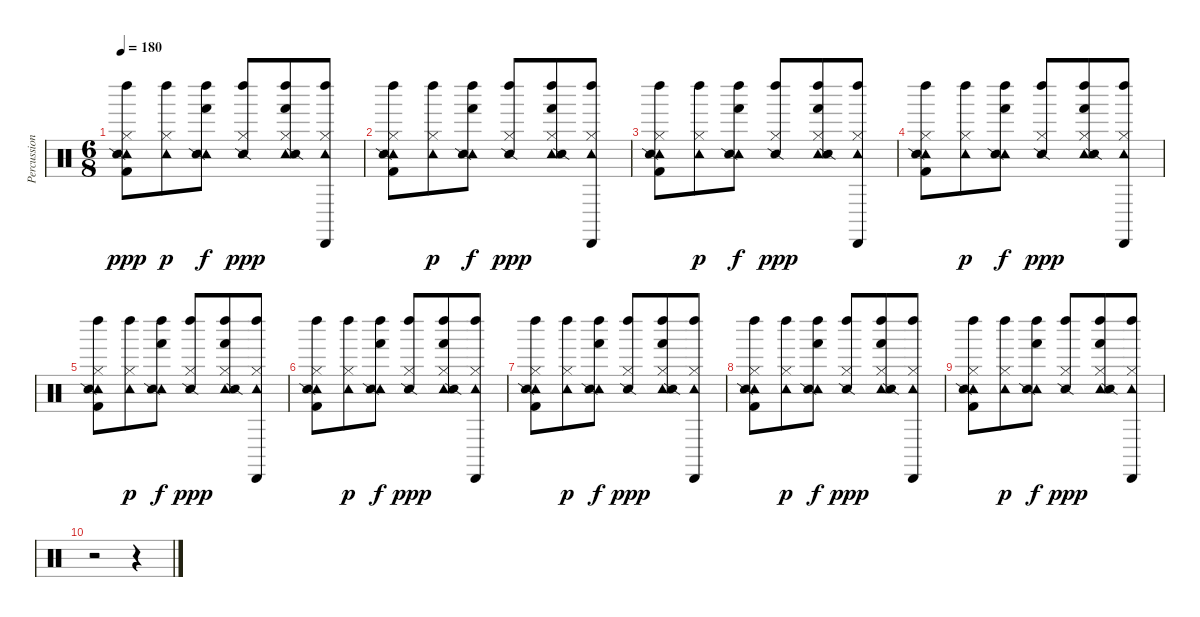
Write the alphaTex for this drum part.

\track ("Percussion" "Percussion") {instrument percussion}
\staff {score}
\articulation defaults
\ts (6 8)
\tempo 180
\clef neutral
\ks c
("Kick (hit) 2" "Hi-Hat (closed)" "Tambourine (hit)" "Snare (side stick) 2" "Left Maraca (hit)").8{dy ppp} ("Hi-Hat (closed)" "Tambourine (hit)" "Left Maraca (hit)").8{dy p} ("Hand (hit)" "Tambourine (hit)" "Snare (side stick) 2" "Left Maraca (hit)").8{dy f} ("Hi-Hat (closed)" "Snare (side stick) 2" "Left Maraca (hit)").8{dy ppp} ("Hand (hit)" "Hi-Hat (closed)" "Tambourine (hit)" "Snare (side stick) 2" "Left Maraca (hit)").8 ("Hi-Hat (closed)" "Tambourine (hit)" "Cabasa (hit)" "Left Maraca (hit)").8 |
("Kick (hit) 2" "Hi-Hat (closed)" "Tambourine (hit)" "Snare (side stick) 2" "Left Maraca (hit)").8 ("Hi-Hat (closed)" "Tambourine (hit)" "Left Maraca (hit)").8{dy p} ("Hand (hit)" "Tambourine (hit)" "Snare (side stick) 2" "Left Maraca (hit)").8{dy f} ("Hi-Hat (closed)" "Snare (side stick) 2" "Left Maraca (hit)").8{dy ppp} ("Hand (hit)" "Hi-Hat (closed)" "Tambourine (hit)" "Snare (side stick) 2" "Left Maraca (hit)").8 ("Hi-Hat (closed)" "Tambourine (hit)" "Cabasa (hit)" "Left Maraca (hit)").8 |
("Kick (hit) 2" "Hi-Hat (closed)" "Tambourine (hit)" "Snare (side stick) 2" "Left Maraca (hit)").8 ("Hi-Hat (closed)" "Tambourine (hit)" "Left Maraca (hit)").8{dy p} ("Hand (hit)" "Tambourine (hit)" "Snare (side stick) 2" "Left Maraca (hit)").8{dy f} ("Hi-Hat (closed)" "Snare (side stick) 2" "Left Maraca (hit)").8{dy ppp} ("Hand (hit)" "Hi-Hat (closed)" "Tambourine (hit)" "Snare (side stick) 2" "Left Maraca (hit)").8 ("Hi-Hat (closed)" "Tambourine (hit)" "Cabasa (hit)" "Left Maraca (hit)").8 |
("Kick (hit) 2" "Hi-Hat (closed)" "Tambourine (hit)" "Snare (side stick) 2" "Left Maraca (hit)").8 ("Hi-Hat (closed)" "Tambourine (hit)" "Left Maraca (hit)").8{dy p} ("Hand (hit)" "Tambourine (hit)" "Snare (side stick) 2" "Left Maraca (hit)").8{dy f} ("Hi-Hat (closed)" "Snare (side stick) 2" "Left Maraca (hit)").8{dy ppp} ("Hand (hit)" "Hi-Hat (closed)" "Tambourine (hit)" "Snare (side stick) 2" "Left Maraca (hit)").8 ("Hi-Hat (closed)" "Tambourine (hit)" "Cabasa (hit)" "Left Maraca (hit)").8 |
("Kick (hit) 2" "Hi-Hat (closed)" "Tambourine (hit)" "Snare (side stick) 2" "Left Maraca (hit)").8 ("Hi-Hat (closed)" "Tambourine (hit)" "Left Maraca (hit)").8{dy p} ("Hand (hit)" "Tambourine (hit)" "Snare (side stick) 2" "Left Maraca (hit)").8{dy f} ("Hi-Hat (closed)" "Snare (side stick) 2" "Left Maraca (hit)").8{dy ppp} ("Hand (hit)" "Hi-Hat (closed)" "Tambourine (hit)" "Snare (side stick) 2" "Left Maraca (hit)").8 ("Hi-Hat (closed)" "Tambourine (hit)" "Cabasa (hit)" "Left Maraca (hit)").8 |
("Kick (hit) 2" "Hi-Hat (closed)" "Tambourine (hit)" "Snare (side stick) 2" "Left Maraca (hit)").8 ("Hi-Hat (closed)" "Tambourine (hit)" "Left Maraca (hit)").8{dy p} ("Hand (hit)" "Tambourine (hit)" "Snare (side stick) 2" "Left Maraca (hit)").8{dy f} ("Hi-Hat (closed)" "Snare (side stick) 2" "Left Maraca (hit)").8{dy ppp} ("Hand (hit)" "Hi-Hat (closed)" "Tambourine (hit)" "Snare (side stick) 2" "Left Maraca (hit)").8 ("Hi-Hat (closed)" "Tambourine (hit)" "Cabasa (hit)" "Left Maraca (hit)").8 |
("Kick (hit) 2" "Hi-Hat (closed)" "Tambourine (hit)" "Snare (side stick) 2" "Left Maraca (hit)").8 ("Hi-Hat (closed)" "Tambourine (hit)" "Left Maraca (hit)").8{dy p} ("Hand (hit)" "Tambourine (hit)" "Snare (side stick) 2" "Left Maraca (hit)").8{dy f} ("Hi-Hat (closed)" "Snare (side stick) 2" "Left Maraca (hit)").8{dy ppp} ("Hand (hit)" "Hi-Hat (closed)" "Tambourine (hit)" "Snare (side stick) 2" "Left Maraca (hit)").8 ("Hi-Hat (closed)" "Tambourine (hit)" "Cabasa (hit)" "Left Maraca (hit)").8 |
("Kick (hit) 2" "Hi-Hat (closed)" "Tambourine (hit)" "Snare (side stick) 2" "Left Maraca (hit)").8 ("Hi-Hat (closed)" "Tambourine (hit)" "Left Maraca (hit)").8{dy p} ("Hand (hit)" "Tambourine (hit)" "Snare (side stick) 2" "Left Maraca (hit)").8{dy f} ("Hi-Hat (closed)" "Snare (side stick) 2" "Left Maraca (hit)").8{dy ppp} ("Hand (hit)" "Hi-Hat (closed)" "Tambourine (hit)" "Snare (side stick) 2" "Left Maraca (hit)").8 ("Hi-Hat (closed)" "Tambourine (hit)" "Cabasa (hit)" "Left Maraca (hit)").8 |
("Kick (hit) 2" "Hi-Hat (closed)" "Tambourine (hit)" "Snare (side stick) 2" "Left Maraca (hit)").8 ("Hi-Hat (closed)" "Tambourine (hit)" "Left Maraca (hit)").8{dy p} ("Hand (hit)" "Tambourine (hit)" "Snare (side stick) 2" "Left Maraca (hit)").8{dy f} ("Hi-Hat (closed)" "Snare (side stick) 2" "Left Maraca (hit)").8{dy ppp} ("Hand (hit)" "Hi-Hat (closed)" "Tambourine (hit)" "Snare (side stick) 2" "Left Maraca (hit)").8 ("Hi-Hat (closed)" "Tambourine (hit)" "Cabasa (hit)" "Left Maraca (hit)").8 |
r.2 r.4
